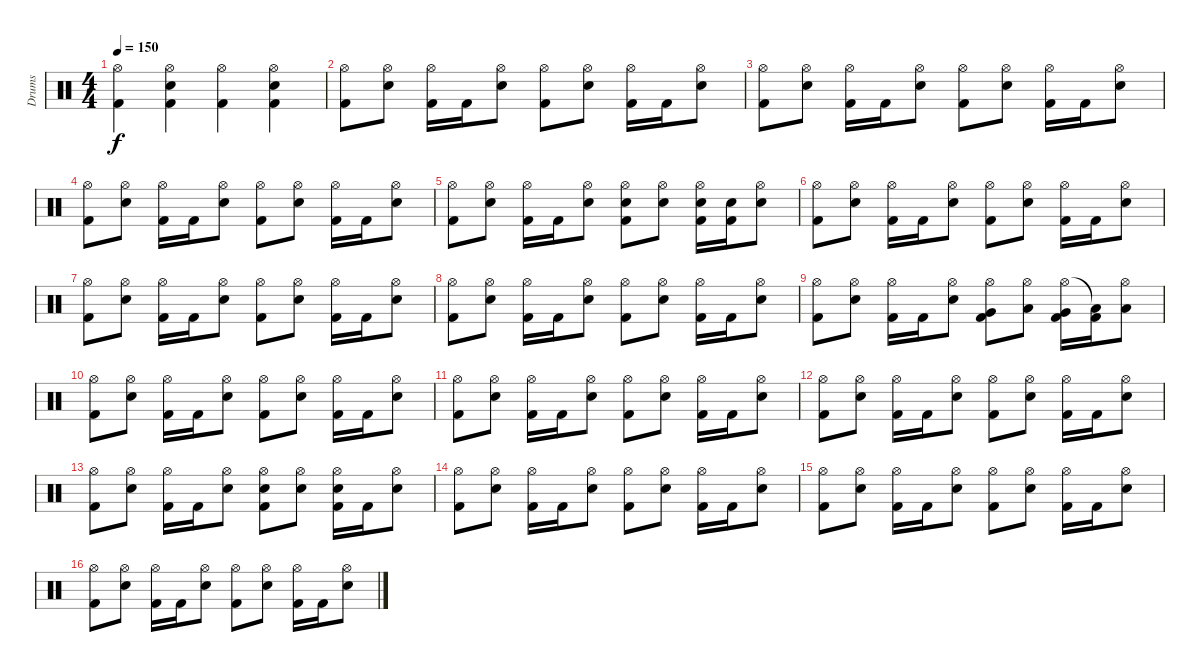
\track ("Drums" "Drums") {instrument percussion}
\staff {score}
\articulation defaults
\ts (4 4)
\tempo 150
\clef neutral
\ks c
("Hi-Hat (open)" "Kick (hit) 2").4{dy f} ("Hi-Hat (open)" "Snare (hit) 2" "Kick (hit) 2").4 ("Hi-Hat (open)" "Kick (hit) 2").4 ("Hi-Hat (open)" "Snare (hit) 2" "Kick (hit) 2").4 |
\section ("" "")
("Hi-Hat (open)" "Kick (hit) 2").8 ("Hi-Hat (open)" "Snare (hit) 2").8 ("Hi-Hat (open)" "Kick (hit) 2").16 "Kick (hit) 2".16 ("Hi-Hat (open)" "Snare (hit) 2").8 ("Hi-Hat (open)" "Kick (hit) 2").8 ("Hi-Hat (open)" "Snare (hit) 2").8 ("Hi-Hat (open)" "Kick (hit) 2").16 "Kick (hit) 2".16 ("Hi-Hat (open)" "Snare (hit) 2").8 |
("Hi-Hat (open)" "Kick (hit) 2").8 ("Hi-Hat (open)" "Snare (hit) 2").8 ("Hi-Hat (open)" "Kick (hit) 2").16 "Kick (hit) 2".16 ("Hi-Hat (open)" "Snare (hit) 2").8 ("Hi-Hat (open)" "Kick (hit) 2").8 ("Hi-Hat (open)" "Snare (hit) 2").8 ("Hi-Hat (open)" "Kick (hit) 2").16 "Kick (hit) 2".16 ("Hi-Hat (open)" "Snare (hit) 2").8 |
("Hi-Hat (open)" "Kick (hit) 2").8 ("Hi-Hat (open)" "Snare (hit) 2").8 ("Hi-Hat (open)" "Kick (hit) 2").16 "Kick (hit) 2".16 ("Hi-Hat (open)" "Snare (hit) 2").8 ("Hi-Hat (open)" "Kick (hit) 2").8 ("Hi-Hat (open)" "Snare (hit) 2").8 ("Hi-Hat (open)" "Kick (hit) 2").16 "Kick (hit) 2".16 ("Hi-Hat (open)" "Snare (hit) 2").8 |
("Hi-Hat (open)" "Kick (hit) 2").8 ("Hi-Hat (open)" "Snare (hit) 2").8 ("Hi-Hat (open)" "Kick (hit) 2").16 "Kick (hit) 2".16 ("Hi-Hat (open)" "Snare (hit) 2").8 ("Hi-Hat (open)" "Snare (hit) 2" "Kick (hit) 2").8 ("Hi-Hat (open)" "Snare (hit) 2").8 ("Hi-Hat (open)" "Snare (hit) 2" "Kick (hit) 2").16 ("Snare (hit) 2" "Kick (hit) 2").16 ("Hi-Hat (open)" "Snare (hit) 2").8 |
("Hi-Hat (open)" "Kick (hit) 2").8 ("Hi-Hat (open)" "Snare (hit) 2").8 ("Hi-Hat (open)" "Kick (hit) 2").16 "Kick (hit) 2".16 ("Hi-Hat (open)" "Snare (hit) 2").8 ("Hi-Hat (open)" "Kick (hit) 2").8 ("Hi-Hat (open)" "Snare (hit) 2").8 ("Hi-Hat (open)" "Kick (hit) 2").16 "Kick (hit) 2".16 ("Hi-Hat (open)" "Snare (hit) 2").8 |
("Hi-Hat (open)" "Kick (hit) 2").8 ("Hi-Hat (open)" "Snare (hit) 2").8 ("Hi-Hat (open)" "Kick (hit) 2").16 "Kick (hit) 2".16 ("Hi-Hat (open)" "Snare (hit) 2").8 ("Hi-Hat (open)" "Kick (hit) 2").8 ("Hi-Hat (open)" "Snare (hit) 2").8 ("Hi-Hat (open)" "Kick (hit) 2").16 "Kick (hit) 2".16 ("Hi-Hat (open)" "Snare (hit) 2").8 |
("Hi-Hat (open)" "Kick (hit) 2").8 ("Hi-Hat (open)" "Snare (hit) 2").8 ("Hi-Hat (open)" "Kick (hit) 2").16 "Kick (hit) 2".16 ("Hi-Hat (open)" "Snare (hit) 2").8 ("Hi-Hat (open)" "Kick (hit) 2").8 ("Hi-Hat (open)" "Snare (hit) 2").8 ("Hi-Hat (open)" "Kick (hit) 2").16 "Kick (hit) 2".16 ("Hi-Hat (open)" "Snare (hit) 2").8 |
("Hi-Hat (open)" "Kick (hit) 2").8 ("Hi-Hat (open)" "Snare (hit) 2").8 ("Hi-Hat (open)" "Kick (hit) 2").16 "Kick (hit) 2".16 ("Hi-Hat (open)" "Snare (hit) 2").8 ("Hi-Hat (open)" "Very Low Tom (hit)" "Kick (hit) 2").8 ("Hi-Hat (open)" "Low Floor Tom (hit)").8 ("Hi-Hat (open)" "Very Low Tom (hit)" "Kick (hit) 2").16 ("Low Floor Tom (hit)"{t} "Kick (hit) 2").16 ("Hi-Hat (open)" "Low Floor Tom (hit)").8 |
("Hi-Hat (open)" "Kick (hit) 2").8 ("Hi-Hat (open)" "Snare (hit) 2").8 ("Hi-Hat (open)" "Kick (hit) 2").16 "Kick (hit) 2".16 ("Hi-Hat (open)" "Snare (hit) 2").8 ("Hi-Hat (open)" "Kick (hit) 2").8 ("Hi-Hat (open)" "Snare (hit) 2").8 ("Hi-Hat (open)" "Kick (hit) 2").16 "Kick (hit) 2".16 ("Hi-Hat (open)" "Snare (hit) 2").8 |
("Hi-Hat (open)" "Kick (hit) 2").8 ("Hi-Hat (open)" "Snare (hit) 2").8 ("Hi-Hat (open)" "Kick (hit) 2").16 "Kick (hit) 2".16 ("Hi-Hat (open)" "Snare (hit) 2").8 ("Hi-Hat (open)" "Kick (hit) 2").8 ("Hi-Hat (open)" "Snare (hit) 2").8 ("Hi-Hat (open)" "Kick (hit) 2").16 "Kick (hit) 2".16 ("Hi-Hat (open)" "Snare (hit) 2").8 |
("Hi-Hat (open)" "Kick (hit) 2").8 ("Hi-Hat (open)" "Snare (hit) 2").8 ("Hi-Hat (open)" "Kick (hit) 2").16 "Kick (hit) 2".16 ("Hi-Hat (open)" "Snare (hit) 2").8 ("Hi-Hat (open)" "Kick (hit) 2").8 ("Hi-Hat (open)" "Snare (hit) 2").8 ("Hi-Hat (open)" "Kick (hit) 2").16 "Kick (hit) 2".16 ("Hi-Hat (open)" "Snare (hit) 2").8 |
("Hi-Hat (open)" "Kick (hit) 2").8 ("Hi-Hat (open)" "Snare (hit) 2").8 ("Hi-Hat (open)" "Kick (hit) 2").16 "Kick (hit) 2".16 ("Hi-Hat (open)" "Snare (hit) 2").8 ("Hi-Hat (open)" "Snare (hit) 2" "Kick (hit) 2").8 ("Hi-Hat (open)" "Snare (hit) 2").8 ("Hi-Hat (open)" "Snare (hit) 2" "Kick (hit) 2").16 "Kick (hit) 2".16 ("Hi-Hat (open)" "Snare (hit) 2").8 |
("Hi-Hat (open)" "Kick (hit) 2").8 ("Hi-Hat (open)" "Snare (hit) 2").8 ("Hi-Hat (open)" "Kick (hit) 2").16 "Kick (hit) 2".16 ("Hi-Hat (open)" "Snare (hit) 2").8 ("Hi-Hat (open)" "Kick (hit) 2").8 ("Hi-Hat (open)" "Snare (hit) 2").8 ("Hi-Hat (open)" "Kick (hit) 2").16 "Kick (hit) 2".16 ("Hi-Hat (open)" "Snare (hit) 2").8 |
("Hi-Hat (open)" "Kick (hit) 2").8 ("Hi-Hat (open)" "Snare (hit) 2").8 ("Hi-Hat (open)" "Kick (hit) 2").16 "Kick (hit) 2".16 ("Hi-Hat (open)" "Snare (hit) 2").8 ("Hi-Hat (open)" "Kick (hit) 2").8 ("Hi-Hat (open)" "Snare (hit) 2").8 ("Hi-Hat (open)" "Kick (hit) 2").16 "Kick (hit) 2".16 ("Hi-Hat (open)" "Snare (hit) 2").8 |
("Hi-Hat (open)" "Kick (hit) 2").8 ("Hi-Hat (open)" "Snare (hit) 2").8 ("Hi-Hat (open)" "Kick (hit) 2").16 "Kick (hit) 2".16 ("Hi-Hat (open)" "Snare (hit) 2").8 ("Hi-Hat (open)" "Kick (hit) 2").8 ("Hi-Hat (open)" "Snare (hit) 2").8 ("Hi-Hat (open)" "Kick (hit) 2").16 "Kick (hit) 2".16 ("Hi-Hat (open)" "Snare (hit) 2").8
